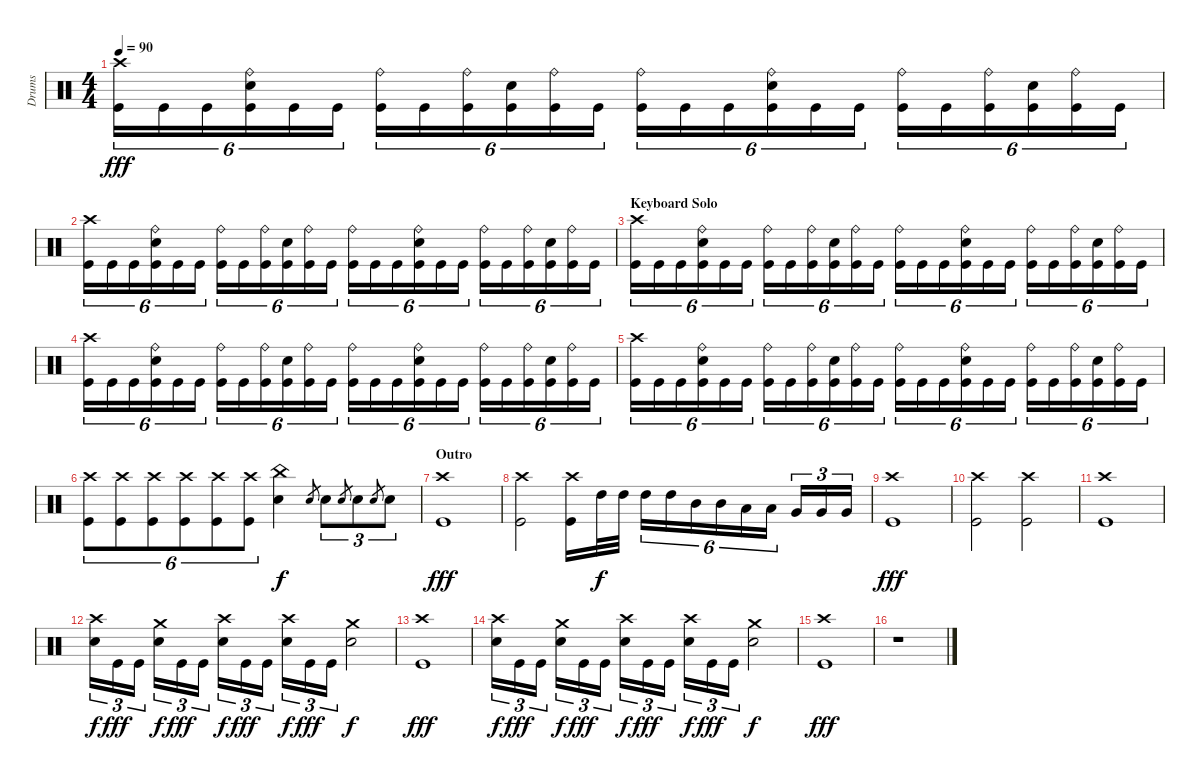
\track ("Drums" "Drums") {instrument percussion}
\staff {score}
\articulation defaults
\ts (4 4)
\tempo 90
\clef neutral
\ks c
("Crash high (hit)" "Kick (hit)").16{tu (6 4) dy fff} "Kick (hit)".16{tu (6 4)} "Kick (hit)".16{tu (6 4)} ("Ride (bell)" "Electric Snare (hit)" "Kick (hit)").16{tu (6 4)} "Kick (hit)".16{tu (6 4)} "Kick (hit)".16{tu (6 4)} ("Ride (bell)" "Kick (hit)").16{tu (6 4)} "Kick (hit)".16{tu (6 4)} ("Ride (bell)" "Kick (hit)").16{tu (6 4)} ("Electric Snare (hit)" "Kick (hit)").16{tu (6 4)} ("Ride (bell)" "Kick (hit)").16{tu (6 4)} "Kick (hit)".16{tu (6 4)} ("Ride (bell)" "Kick (hit)").16{tu (6 4)} "Kick (hit)".16{tu (6 4)} "Kick (hit)".16{tu (6 4)} ("Ride (bell)" "Electric Snare (hit)" "Kick (hit)").16{tu (6 4)} "Kick (hit)".16{tu (6 4)} "Kick (hit)".16{tu (6 4)} ("Ride (bell)" "Kick (hit)").16{tu (6 4)} "Kick (hit)".16{tu (6 4)} ("Ride (bell)" "Kick (hit)").16{tu (6 4)} ("Electric Snare (hit)" "Kick (hit)").16{tu (6 4)} ("Ride (bell)" "Kick (hit)").16{tu (6 4)} "Kick (hit)".16{tu (6 4)} |
("Crash high (hit)" "Kick (hit)").16{tu (6 4)} "Kick (hit)".16{tu (6 4)} "Kick (hit)".16{tu (6 4)} ("Ride (bell)" "Electric Snare (hit)" "Kick (hit)").16{tu (6 4)} "Kick (hit)".16{tu (6 4)} "Kick (hit)".16{tu (6 4)} ("Ride (bell)" "Kick (hit)").16{tu (6 4)} "Kick (hit)".16{tu (6 4)} ("Ride (bell)" "Kick (hit)").16{tu (6 4)} ("Electric Snare (hit)" "Kick (hit)").16{tu (6 4)} ("Ride (bell)" "Kick (hit)").16{tu (6 4)} "Kick (hit)".16{tu (6 4)} ("Ride (bell)" "Kick (hit)").16{tu (6 4)} "Kick (hit)".16{tu (6 4)} "Kick (hit)".16{tu (6 4)} ("Ride (bell)" "Electric Snare (hit)" "Kick (hit)").16{tu (6 4)} "Kick (hit)".16{tu (6 4)} "Kick (hit)".16{tu (6 4)} ("Ride (bell)" "Kick (hit)").16{tu (6 4)} "Kick (hit)".16{tu (6 4)} ("Ride (bell)" "Kick (hit)").16{tu (6 4)} ("Electric Snare (hit)" "Kick (hit)").16{tu (6 4)} ("Ride (bell)" "Kick (hit)").16{tu (6 4)} "Kick (hit)".16{tu (6 4)} |
\section ("" "Keyboard Solo")
("Crash high (hit)" "Kick (hit)").16{tu (6 4)} "Kick (hit)".16{tu (6 4)} "Kick (hit)".16{tu (6 4)} ("Ride (bell)" "Electric Snare (hit)" "Kick (hit)").16{tu (6 4)} "Kick (hit)".16{tu (6 4)} "Kick (hit)".16{tu (6 4)} ("Ride (bell)" "Kick (hit)").16{tu (6 4)} "Kick (hit)".16{tu (6 4)} ("Ride (bell)" "Kick (hit)").16{tu (6 4)} ("Electric Snare (hit)" "Kick (hit)").16{tu (6 4)} ("Ride (bell)" "Kick (hit)").16{tu (6 4)} "Kick (hit)".16{tu (6 4)} ("Ride (bell)" "Kick (hit)").16{tu (6 4)} "Kick (hit)".16{tu (6 4)} "Kick (hit)".16{tu (6 4)} ("Ride (bell)" "Electric Snare (hit)" "Kick (hit)").16{tu (6 4)} "Kick (hit)".16{tu (6 4)} "Kick (hit)".16{tu (6 4)} ("Ride (bell)" "Kick (hit)").16{tu (6 4)} "Kick (hit)".16{tu (6 4)} ("Ride (bell)" "Kick (hit)").16{tu (6 4)} ("Electric Snare (hit)" "Kick (hit)").16{tu (6 4)} ("Ride (bell)" "Kick (hit)").16{tu (6 4)} "Kick (hit)".16{tu (6 4)} |
("Crash high (hit)" "Kick (hit)").16{tu (6 4)} "Kick (hit)".16{tu (6 4)} "Kick (hit)".16{tu (6 4)} ("Ride (bell)" "Electric Snare (hit)" "Kick (hit)").16{tu (6 4)} "Kick (hit)".16{tu (6 4)} "Kick (hit)".16{tu (6 4)} ("Ride (bell)" "Kick (hit)").16{tu (6 4)} "Kick (hit)".16{tu (6 4)} ("Ride (bell)" "Kick (hit)").16{tu (6 4)} ("Electric Snare (hit)" "Kick (hit)").16{tu (6 4)} ("Ride (bell)" "Kick (hit)").16{tu (6 4)} "Kick (hit)".16{tu (6 4)} ("Ride (bell)" "Kick (hit)").16{tu (6 4)} "Kick (hit)".16{tu (6 4)} "Kick (hit)".16{tu (6 4)} ("Ride (bell)" "Electric Snare (hit)" "Kick (hit)").16{tu (6 4)} "Kick (hit)".16{tu (6 4)} "Kick (hit)".16{tu (6 4)} ("Ride (bell)" "Kick (hit)").16{tu (6 4)} "Kick (hit)".16{tu (6 4)} ("Ride (bell)" "Kick (hit)").16{tu (6 4)} ("Electric Snare (hit)" "Kick (hit)").16{tu (6 4)} ("Ride (bell)" "Kick (hit)").16{tu (6 4)} "Kick (hit)".16{tu (6 4)} |
("Crash high (hit)" "Kick (hit)").16{tu (6 4)} "Kick (hit)".16{tu (6 4)} "Kick (hit)".16{tu (6 4)} ("Ride (bell)" "Electric Snare (hit)" "Kick (hit)").16{tu (6 4)} "Kick (hit)".16{tu (6 4)} "Kick (hit)".16{tu (6 4)} ("Ride (bell)" "Kick (hit)").16{tu (6 4)} "Kick (hit)".16{tu (6 4)} ("Ride (bell)" "Kick (hit)").16{tu (6 4)} ("Electric Snare (hit)" "Kick (hit)").16{tu (6 4)} ("Ride (bell)" "Kick (hit)").16{tu (6 4)} "Kick (hit)".16{tu (6 4)} ("Ride (bell)" "Kick (hit)").16{tu (6 4)} "Kick (hit)".16{tu (6 4)} "Kick (hit)".16{tu (6 4)} ("Ride (bell)" "Electric Snare (hit)" "Kick (hit)").16{tu (6 4)} "Kick (hit)".16{tu (6 4)} "Kick (hit)".16{tu (6 4)} ("Ride (bell)" "Kick (hit)").16{tu (6 4)} "Kick (hit)".16{tu (6 4)} ("Ride (bell)" "Kick (hit)").16{tu (6 4)} ("Electric Snare (hit)" "Kick (hit)").16{tu (6 4)} ("Ride (bell)" "Kick (hit)").16{tu (6 4)} "Kick (hit)".16{tu (6 4)} |
("Crash high (hit)" "Kick (hit)").8{tu (6 4)} ("Crash high (hit)" "Kick (hit)").8{tu (6 4)} ("Crash high (hit)" "Kick (hit)").8{tu (6 4)} ("Crash high (hit)" "Kick (hit)").8{tu (6 4)} ("Crash high (hit)" "Kick (hit)").8{tu (6 4)} ("Crash high (hit)" "Kick (hit)").8{tu (6 4)} ("China (hit)" "Electric Snare (hit)").4{dy f} "Electric Snare (hit)".8{gr} "Electric Snare (hit)".8{tu (3 2)} "Electric Snare (hit)".8{gr} "Electric Snare (hit)".8{tu (3 2)} "Electric Snare (hit)".8{gr} "Electric Snare (hit)".8{tu (3 2)} |
\section ("" "Outro")
("Crash high (hit)" "Kick (hit)").1{dy fff} |
("Crash high (hit)" "Kick (hit)").2 ("Crash high (hit)" "Kick (hit)").16 "High Tom (hit)".32{dy f} "High Tom (hit)".32 "High Tom (hit)".16{tu (6 4)} "High Tom (hit)".16{tu (6 4)} "Mid Tom (hit)".16{tu (6 4)} "Mid Tom (hit)".16{tu (6 4)} "Low Tom (hit)".16{tu (6 4)} "Low Tom (hit)".16{tu (6 4)} "Very Low Tom (hit)".16{tu (3 2)} "Very Low Tom (hit)".16{tu (3 2)} "Very Low Tom (hit)".16{tu (3 2)} |
("Crash high (hit)" "Kick (hit)").1{dy fff} |
("Crash high (hit)" "Kick (hit)").2 ("Crash high (hit)" "Kick (hit)").2 |
("Crash high (hit)" "Kick (hit)").1 |
("Crash high (hit)" "Electric Snare (hit)").16{tu (3 2) dy f} "Kick (hit)".16{tu (3 2) dy fff} "Kick (hit)".16{tu (3 2)} ("Crash medium (hit)" "Electric Snare (hit)").16{tu (3 2) dy f} "Kick (hit)".16{tu (3 2) dy fff} "Kick (hit)".16{tu (3 2)} ("Crash high (hit)" "Electric Snare (hit)").16{tu (3 2) dy f} "Kick (hit)".16{tu (3 2) dy fff} "Kick (hit)".16{tu (3 2)} ("Crash high (hit)" "Electric Snare (hit)").16{tu (3 2) dy f} "Kick (hit)".16{tu (3 2) dy fff} "Kick (hit)".16{tu (3 2)} ("Crash medium (hit)" "Electric Snare (hit)").2{dy f} |
("Crash high (hit)" "Kick (hit)").1{dy fff} |
("Crash high (hit)" "Electric Snare (hit)").16{tu (3 2) dy f} "Kick (hit)".16{tu (3 2) dy fff} "Kick (hit)".16{tu (3 2)} ("Crash medium (hit)" "Electric Snare (hit)").16{tu (3 2) dy f} "Kick (hit)".16{tu (3 2) dy fff} "Kick (hit)".16{tu (3 2)} ("Crash high (hit)" "Electric Snare (hit)").16{tu (3 2) dy f} "Kick (hit)".16{tu (3 2) dy fff} "Kick (hit)".16{tu (3 2)} ("Crash high (hit)" "Electric Snare (hit)").16{tu (3 2) dy f} "Kick (hit)".16{tu (3 2) dy fff} "Kick (hit)".16{tu (3 2)} ("Crash medium (hit)" "Electric Snare (hit)").2{dy f} |
("Crash high (hit)" "Kick (hit)").1{dy fff} |
r.1
